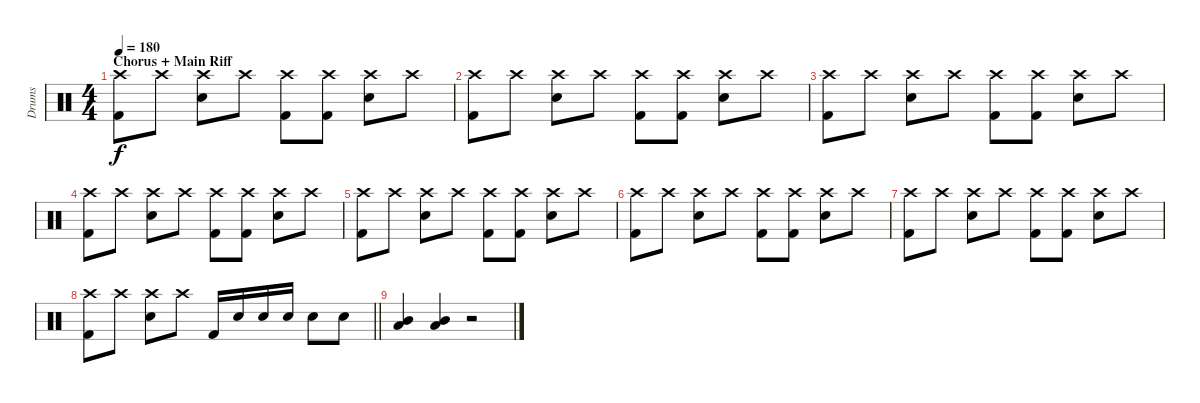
\track ("Drums" "Drums") {instrument percussion}
\staff {score}
\articulation defaults
\ts (4 4)
\section ("" "Chorus + Main Riff")
\tempo 180
\clef neutral
\ks c
("Crash high (hit)" "Kick (hit) 2").8{dy f} "Crash high (hit)".8 ("Crash high (hit)" "Snare (hit) 2").8 "Crash high (hit)".8 ("Crash high (hit)" "Kick (hit) 2").8 ("Crash high (hit)" "Kick (hit) 2").8 ("Crash high (hit)" "Snare (hit) 2").8 "Crash high (hit)".8 |
("Crash high (hit)" "Kick (hit) 2").8 "Crash high (hit)".8 ("Crash high (hit)" "Snare (hit) 2").8 "Crash high (hit)".8 ("Crash high (hit)" "Kick (hit) 2").8 ("Crash high (hit)" "Kick (hit) 2").8 ("Crash high (hit)" "Snare (hit) 2").8 "Crash high (hit)".8 |
("Crash high (hit)" "Kick (hit) 2").8 "Crash high (hit)".8 ("Crash high (hit)" "Snare (hit) 2").8 "Crash high (hit)".8 ("Crash high (hit)" "Kick (hit) 2").8 ("Crash high (hit)" "Kick (hit) 2").8 ("Crash high (hit)" "Snare (hit) 2").8 "Crash high (hit)".8 |
("Crash high (hit)" "Kick (hit) 2").8 "Crash high (hit)".8 ("Crash high (hit)" "Snare (hit) 2").8 "Crash high (hit)".8 ("Crash high (hit)" "Kick (hit) 2").8 ("Crash high (hit)" "Kick (hit) 2").8 ("Crash high (hit)" "Snare (hit) 2").8 "Crash high (hit)".8 |
("Crash high (hit)" "Kick (hit) 2").8 "Crash high (hit)".8 ("Crash high (hit)" "Snare (hit) 2").8 "Crash high (hit)".8 ("Crash high (hit)" "Kick (hit) 2").8 ("Crash high (hit)" "Kick (hit) 2").8 ("Crash high (hit)" "Snare (hit) 2").8 "Crash high (hit)".8 |
("Crash high (hit)" "Kick (hit) 2").8 "Crash high (hit)".8 ("Crash high (hit)" "Snare (hit) 2").8 "Crash high (hit)".8 ("Crash high (hit)" "Kick (hit) 2").8 ("Crash high (hit)" "Kick (hit) 2").8 ("Crash high (hit)" "Snare (hit) 2").8 "Crash high (hit)".8 |
("Crash high (hit)" "Kick (hit) 2").8 "Crash high (hit)".8 ("Crash high (hit)" "Snare (hit) 2").8 "Crash high (hit)".8 ("Crash high (hit)" "Kick (hit) 2").8 ("Crash high (hit)" "Kick (hit) 2").8 ("Crash high (hit)" "Snare (hit) 2").8 "Crash high (hit)".8 |
\barLineRight lightlight
("Crash high (hit)" "Kick (hit) 2").8 "Crash high (hit)".8 ("Crash high (hit)" "Snare (hit) 2").8 "Crash high (hit)".8 "Kick (hit) 2".16 "Snare (hit) 2".16 "Snare (hit) 2".16 "Snare (hit) 2".16 "Snare (hit) 2".8 "Snare (hit) 2".8 |
("Mid Tom (hit)" "Low Tom (hit)").4 ("Mid Tom (hit)" "Low Tom (hit)").4 r.2
